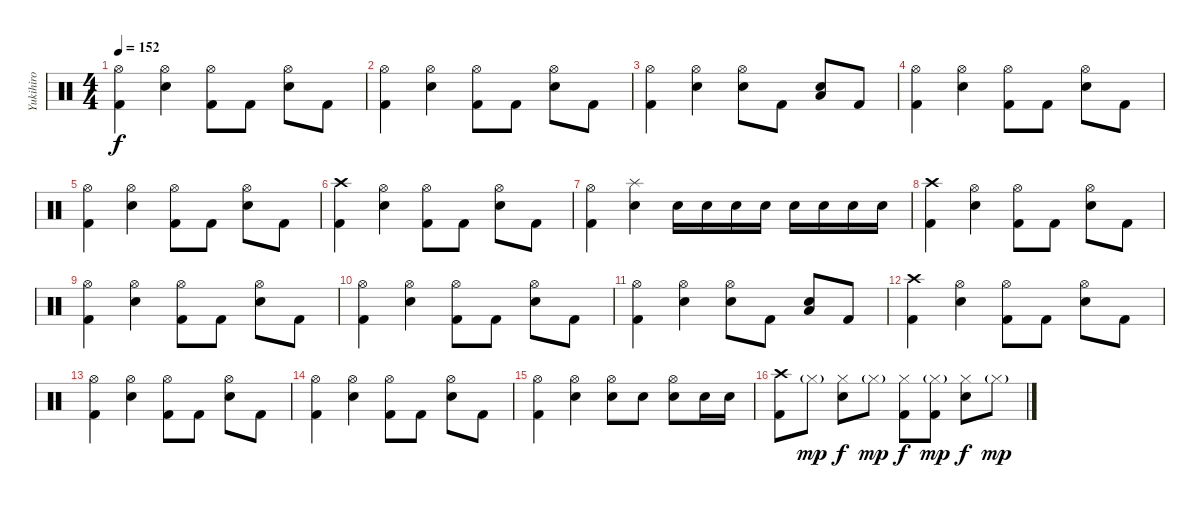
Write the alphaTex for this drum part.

\track ("Yukihiro" "Yukihiro") {instrument percussion}
\staff {score}
\articulation defaults
\ts (4 4)
\tempo 152
\clef neutral
\ks c
("Hi-Hat (open)" "Kick (hit) 2").4{dy f} ("Hi-Hat (open)" "Electric Snare (hit)").4 ("Hi-Hat (open)" "Kick (hit) 2").8 "Kick (hit) 2".8 ("Hi-Hat (open)" "Electric Snare (hit)").8 "Kick (hit) 2".8 |
("Hi-Hat (open)" "Kick (hit) 2").4 ("Hi-Hat (open)" "Electric Snare (hit)").4 ("Hi-Hat (open)" "Kick (hit) 2").8 "Kick (hit) 2".8 ("Hi-Hat (open)" "Electric Snare (hit)").8 "Kick (hit) 2".8 |
("Hi-Hat (open)" "Kick (hit) 2").4 ("Hi-Hat (open)" "Electric Snare (hit)").4 ("Hi-Hat (open)" "Electric Snare (hit)").8 "Kick (hit) 2".8 ("Low Tom (hit)" "Electric Snare (hit)").8 "Kick (hit) 2".8 |
("Hi-Hat (open)" "Kick (hit) 2").4 ("Hi-Hat (open)" "Electric Snare (hit)").4 ("Hi-Hat (open)" "Kick (hit) 2").8 "Kick (hit) 2".8 ("Hi-Hat (open)" "Electric Snare (hit)").8 "Kick (hit) 2".8 |
("Hi-Hat (open)" "Kick (hit) 2").4 ("Hi-Hat (open)" "Electric Snare (hit)").4 ("Hi-Hat (open)" "Kick (hit) 2").8 "Kick (hit) 2".8 ("Hi-Hat (open)" "Electric Snare (hit)").8 "Kick (hit) 2".8 |
("Crash high (hit)" "Kick (hit) 2").4 ("Hi-Hat (open)" "Electric Snare (hit)").4 ("Hi-Hat (open)" "Kick (hit) 2").8 "Kick (hit) 2".8 ("Hi-Hat (open)" "Electric Snare (hit)").8 "Kick (hit) 2".8 |
("Hi-Hat (open)" "Kick (hit) 2").4 ("Splash (hit)" "Electric Snare (hit)").4 "Electric Snare (hit)".16 "Electric Snare (hit)".16 "Electric Snare (hit)".16 "Electric Snare (hit)".16 "Electric Snare (hit)".16 "Electric Snare (hit)".16 "Electric Snare (hit)".16 "Electric Snare (hit)".16 |
("Crash high (hit)" "Kick (hit) 2").4 ("Hi-Hat (open)" "Electric Snare (hit)").4 ("Hi-Hat (open)" "Kick (hit) 2").8 "Kick (hit) 2".8 ("Hi-Hat (open)" "Electric Snare (hit)").8 "Kick (hit) 2".8 |
("Hi-Hat (open)" "Kick (hit) 2").4 ("Hi-Hat (open)" "Electric Snare (hit)").4 ("Hi-Hat (open)" "Kick (hit) 2").8 "Kick (hit) 2".8 ("Hi-Hat (open)" "Electric Snare (hit)").8 "Kick (hit) 2".8 |
("Hi-Hat (open)" "Kick (hit) 2").4 ("Hi-Hat (open)" "Electric Snare (hit)").4 ("Hi-Hat (open)" "Kick (hit) 2").8 "Kick (hit) 2".8 ("Hi-Hat (open)" "Electric Snare (hit)").8 "Kick (hit) 2".8 |
("Hi-Hat (open)" "Kick (hit) 2").4 ("Hi-Hat (open)" "Electric Snare (hit)").4 ("Hi-Hat (open)" "Electric Snare (hit)").8 "Kick (hit) 2".8 ("Low Tom (hit)" "Electric Snare (hit)").8 "Kick (hit) 2".8 |
("Crash high (hit)" "Kick (hit) 2").4 ("Hi-Hat (open)" "Electric Snare (hit)").4 ("Hi-Hat (open)" "Kick (hit) 2").8 "Kick (hit) 2".8 ("Hi-Hat (open)" "Electric Snare (hit)").8 "Kick (hit) 2".8 |
("Hi-Hat (open)" "Kick (hit) 2").4 ("Hi-Hat (open)" "Electric Snare (hit)").4 ("Hi-Hat (open)" "Kick (hit) 2").8 "Kick (hit) 2".8 ("Hi-Hat (open)" "Electric Snare (hit)").8 "Kick (hit) 2".8 |
("Hi-Hat (open)" "Kick (hit) 2").4 ("Hi-Hat (open)" "Electric Snare (hit)").4 ("Hi-Hat (open)" "Kick (hit) 2").8 "Kick (hit) 2".8 ("Hi-Hat (open)" "Electric Snare (hit)").8 "Kick (hit) 2".8 |
("Hi-Hat (open)" "Kick (hit) 2").4 ("Hi-Hat (open)" "Electric Snare (hit)").4 ("Hi-Hat (open)" "Electric Snare (hit)").8 "Electric Snare (hit)".8 ("Hi-Hat (open)" "Electric Snare (hit)").8 "Electric Snare (hit)".16 "Electric Snare (hit)".16 |
("Crash high (hit)" "Kick (hit) 2").8 "Hi-Hat (closed)"{g}.8{dy mp} ("Hi-Hat (closed)" "Electric Snare (hit)").8{dy f} "Hi-Hat (closed)"{g}.8{dy mp} ("Hi-Hat (closed)" "Kick (hit) 2").8{dy f} ("Hi-Hat (closed)"{g} "Kick (hit) 2").8{dy mp} ("Hi-Hat (closed)" "Electric Snare (hit)").8{dy f} "Hi-Hat (closed)"{g}.8{dy mp}
